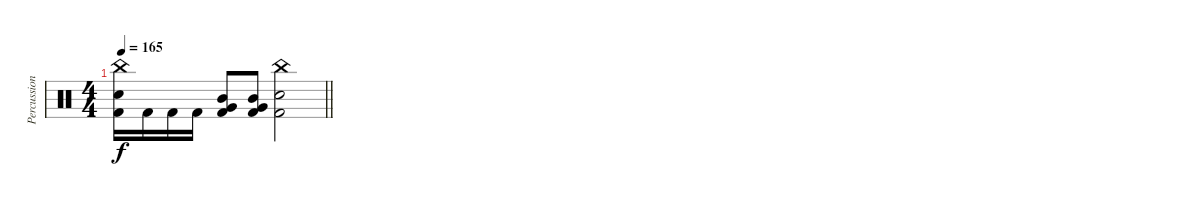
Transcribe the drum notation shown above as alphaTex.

\track ("Percussions" "Percussion") {instrument percussion}
\staff {score}
\articulation defaults
\ts (4 4)
\tempo 165
\clef neutral
\barLineRight lightlight
\ks c
("China (hit)" "Electric Snare (hit)" "Kick (hit) 2").16{dy f} "Kick (hit) 2".16 "Kick (hit) 2".16 "Kick (hit) 2".16 ("Mid Tom (hit)" "Very Low Tom (hit)" "Kick (hit) 2").8 ("Mid Tom (hit)" "Very Low Tom (hit)" "Kick (hit) 2").8 ("China (hit)" "Electric Snare (hit)" "Kick (hit) 2").2
